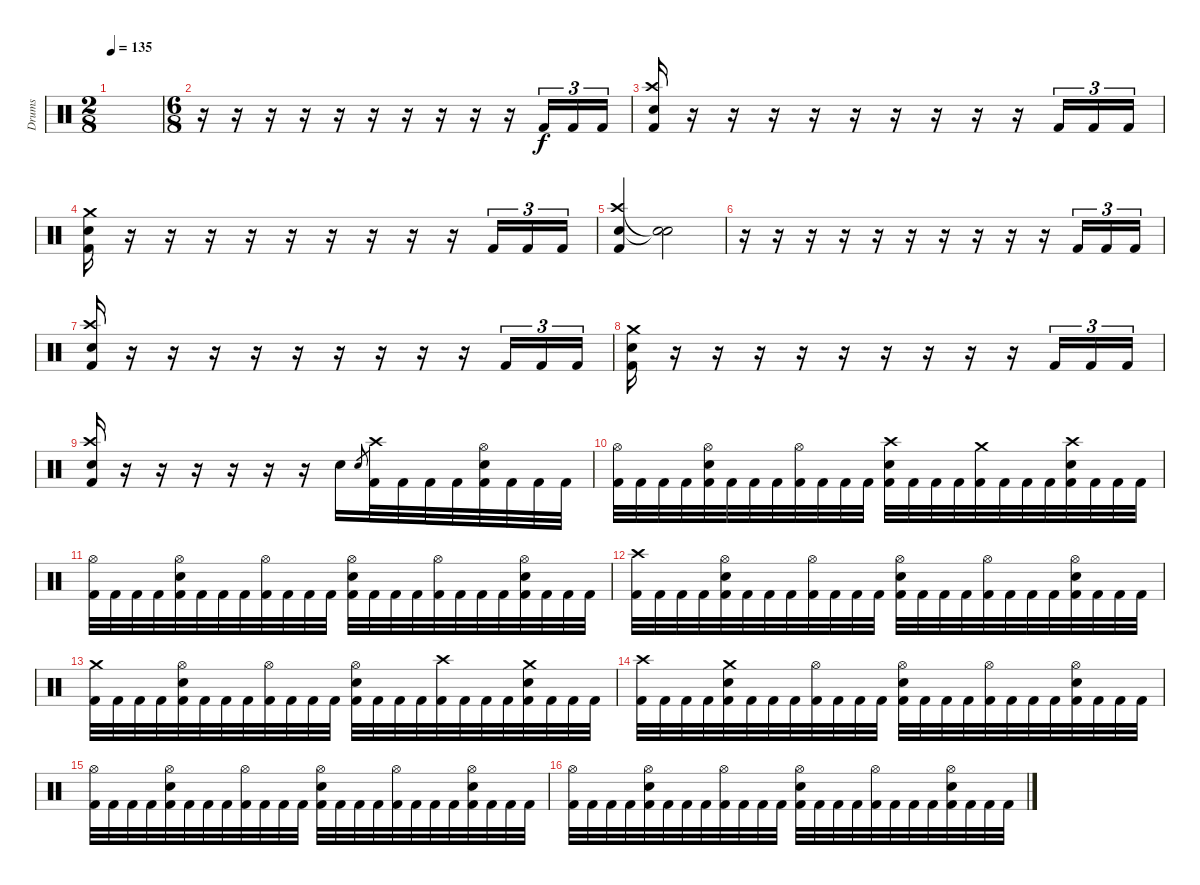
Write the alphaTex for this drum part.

\track ("Drums" "Drums") {instrument percussion}
\staff {score}
\articulation defaults
\ts (2 8)
\tempo 135
\clef neutral
\ks c
|
\ts (6 8)
r.16 r.16 r.16 r.16 r.16 r.16 r.16 r.16 r.16 r.16 "Kick (hit) 2".16{tu (3 2)} "Kick (hit) 2".16{tu (3 2)} "Kick (hit) 2".16{tu (3 2)} |
("Crash high (hit)" "Electric Snare (hit)" "Kick (hit) 2").16 r.16 r.16 r.16 r.16 r.16 r.16 r.16 r.16 r.16 "Kick (hit) 2".16{tu (3 2)} "Kick (hit) 2".16{tu (3 2)} "Kick (hit) 2".16{tu (3 2)} |
("Crash medium (hit)" "Electric Snare (hit)" "Kick (hit) 2").16 r.16 r.16 r.16 r.16 r.16 r.16 r.16 r.16 r.16 "Kick (hit) 2".16{tu (3 2)} "Kick (hit) 2".16{tu (3 2)} "Kick (hit) 2".16{tu (3 2)} |
("Crash high (hit)" "Electric Snare (hit)" "Kick (hit) 2").4 ("Snare (hit)"{t} "Snare (hit)"{t}).2 |
r.16 r.16 r.16 r.16 r.16 r.16 r.16 r.16 r.16 r.16 "Kick (hit) 2".16{tu (3 2)} "Kick (hit) 2".16{tu (3 2)} "Kick (hit) 2".16{tu (3 2)} |
("Crash high (hit)" "Electric Snare (hit)" "Kick (hit) 2").16 r.16 r.16 r.16 r.16 r.16 r.16 r.16 r.16 r.16 "Kick (hit) 2".16{tu (3 2)} "Kick (hit) 2".16{tu (3 2)} "Kick (hit) 2".16{tu (3 2)} |
("Crash medium (hit)" "Electric Snare (hit)" "Kick (hit) 2").16 r.16 r.16 r.16 r.16 r.16 r.16 r.16 r.16 r.16 "Kick (hit) 2".16{tu (3 2)} "Kick (hit) 2".16{tu (3 2)} "Kick (hit) 2".16{tu (3 2)} |
("Crash high (hit)" "Electric Snare (hit)" "Kick (hit) 2").16 r.16 r.16 r.16 r.16 r.16 r.16 "Electric Snare (hit)".16 "Electric Snare (hit)".8{gr} ("Crash high (hit)" "Kick (hit) 2").32 "Kick (hit) 2".32 "Kick (hit) 2".32 "Kick (hit) 2".32 ("Hi-Hat (open)" "Electric Snare (hit)" "Kick (hit) 2").32 "Kick (hit) 2".32 "Kick (hit) 2".32 "Kick (hit) 2".32 |
("Hi-Hat (open)" "Kick (hit) 2").32 "Kick (hit) 2".32 "Kick (hit) 2".32 "Kick (hit) 2".32 ("Hi-Hat (open)" "Electric Snare (hit)" "Kick (hit) 2").32 "Kick (hit) 2".32 "Kick (hit) 2".32 "Kick (hit) 2".32 ("Hi-Hat (open)" "Kick (hit) 2").32 "Kick (hit) 2".32 "Kick (hit) 2".32 "Kick (hit) 2".32 ("Crash high (hit)" "Electric Snare (hit)" "Kick (hit) 2").32 "Kick (hit) 2".32 "Kick (hit) 2".32 "Kick (hit) 2".32 ("Crash medium (hit)" "Kick (hit) 2").32 "Kick (hit) 2".32 "Kick (hit) 2".32 "Kick (hit) 2".32 ("Crash high (hit)" "Electric Snare (hit)" "Kick (hit) 2").32 "Kick (hit) 2".32 "Kick (hit) 2".32 "Kick (hit) 2".32 |
("Hi-Hat (open)" "Kick (hit) 2").32 "Kick (hit) 2".32 "Kick (hit) 2".32 "Kick (hit) 2".32 ("Hi-Hat (open)" "Electric Snare (hit)" "Kick (hit) 2").32 "Kick (hit) 2".32 "Kick (hit) 2".32 "Kick (hit) 2".32 ("Hi-Hat (open)" "Kick (hit) 2").32 "Kick (hit) 2".32 "Kick (hit) 2".32 "Kick (hit) 2".32 ("Hi-Hat (open)" "Electric Snare (hit)" "Kick (hit) 2").32 "Kick (hit) 2".32 "Kick (hit) 2".32 "Kick (hit) 2".32 ("Hi-Hat (open)" "Kick (hit) 2").32 "Kick (hit) 2".32 "Kick (hit) 2".32 "Kick (hit) 2".32 ("Hi-Hat (open)" "Electric Snare (hit)" "Kick (hit) 2").32 "Kick (hit) 2".32 "Kick (hit) 2".32 "Kick (hit) 2".32 |
("Crash high (hit)" "Kick (hit) 2").32 "Kick (hit) 2".32 "Kick (hit) 2".32 "Kick (hit) 2".32 ("Hi-Hat (open)" "Electric Snare (hit)" "Kick (hit) 2").32 "Kick (hit) 2".32 "Kick (hit) 2".32 "Kick (hit) 2".32 ("Hi-Hat (open)" "Kick (hit) 2").32 "Kick (hit) 2".32 "Kick (hit) 2".32 "Kick (hit) 2".32 ("Hi-Hat (open)" "Electric Snare (hit)" "Kick (hit) 2").32 "Kick (hit) 2".32 "Kick (hit) 2".32 "Kick (hit) 2".32 ("Hi-Hat (open)" "Kick (hit) 2").32 "Kick (hit) 2".32 "Kick (hit) 2".32 "Kick (hit) 2".32 ("Hi-Hat (open)" "Electric Snare (hit)" "Kick (hit) 2").32 "Kick (hit) 2".32 "Kick (hit) 2".32 "Kick (hit) 2".32 |
("Crash medium (hit)" "Kick (hit) 2").32 "Kick (hit) 2".32 "Kick (hit) 2".32 "Kick (hit) 2".32 ("Hi-Hat (open)" "Electric Snare (hit)" "Kick (hit) 2").32 "Kick (hit) 2".32 "Kick (hit) 2".32 "Kick (hit) 2".32 ("Hi-Hat (open)" "Kick (hit) 2").32 "Kick (hit) 2".32 "Kick (hit) 2".32 "Kick (hit) 2".32 ("Hi-Hat (open)" "Electric Snare (hit)" "Kick (hit) 2").32 "Kick (hit) 2".32 "Kick (hit) 2".32 "Kick (hit) 2".32 ("Crash high (hit)" "Kick (hit) 2").32 "Kick (hit) 2".32 "Kick (hit) 2".32 "Kick (hit) 2".32 ("Crash medium (hit)" "Electric Snare (hit)" "Kick (hit) 2").32 "Kick (hit) 2".32 "Kick (hit) 2".32 "Kick (hit) 2".32 |
("Crash high (hit)" "Kick (hit) 2").32 "Kick (hit) 2".32 "Kick (hit) 2".32 "Kick (hit) 2".32 ("Crash medium (hit)" "Electric Snare (hit)" "Kick (hit) 2").32 "Kick (hit) 2".32 "Kick (hit) 2".32 "Kick (hit) 2".32 ("Hi-Hat (open)" "Kick (hit) 2").32 "Kick (hit) 2".32 "Kick (hit) 2".32 "Kick (hit) 2".32 ("Hi-Hat (open)" "Electric Snare (hit)" "Kick (hit) 2").32 "Kick (hit) 2".32 "Kick (hit) 2".32 "Kick (hit) 2".32 ("Hi-Hat (open)" "Kick (hit) 2").32 "Kick (hit) 2".32 "Kick (hit) 2".32 "Kick (hit) 2".32 ("Hi-Hat (open)" "Electric Snare (hit)" "Kick (hit) 2").32 "Kick (hit) 2".32 "Kick (hit) 2".32 "Kick (hit) 2".32 |
("Hi-Hat (open)" "Kick (hit) 2").32 "Kick (hit) 2".32 "Kick (hit) 2".32 "Kick (hit) 2".32 ("Hi-Hat (open)" "Electric Snare (hit)" "Kick (hit) 2").32 "Kick (hit) 2".32 "Kick (hit) 2".32 "Kick (hit) 2".32 ("Hi-Hat (open)" "Kick (hit) 2").32 "Kick (hit) 2".32 "Kick (hit) 2".32 "Kick (hit) 2".32 ("Hi-Hat (open)" "Electric Snare (hit)" "Kick (hit) 2").32 "Kick (hit) 2".32 "Kick (hit) 2".32 "Kick (hit) 2".32 ("Hi-Hat (open)" "Kick (hit) 2").32 "Kick (hit) 2".32 "Kick (hit) 2".32 "Kick (hit) 2".32 ("Hi-Hat (open)" "Electric Snare (hit)" "Kick (hit) 2").32 "Kick (hit) 2".32 "Kick (hit) 2".32 "Kick (hit) 2".32 |
("Hi-Hat (open)" "Kick (hit) 2").32 "Kick (hit) 2".32 "Kick (hit) 2".32 "Kick (hit) 2".32 ("Hi-Hat (open)" "Electric Snare (hit)" "Kick (hit) 2").32 "Kick (hit) 2".32 "Kick (hit) 2".32 "Kick (hit) 2".32 ("Hi-Hat (open)" "Kick (hit) 2").32 "Kick (hit) 2".32 "Kick (hit) 2".32 "Kick (hit) 2".32 ("Hi-Hat (open)" "Electric Snare (hit)" "Kick (hit) 2").32 "Kick (hit) 2".32 "Kick (hit) 2".32 "Kick (hit) 2".32 ("Hi-Hat (open)" "Kick (hit) 2").32 "Kick (hit) 2".32 "Kick (hit) 2".32 "Kick (hit) 2".32 ("Hi-Hat (open)" "Electric Snare (hit)" "Kick (hit) 2").32 "Kick (hit) 2".32 "Kick (hit) 2".32 "Kick (hit) 2".32
